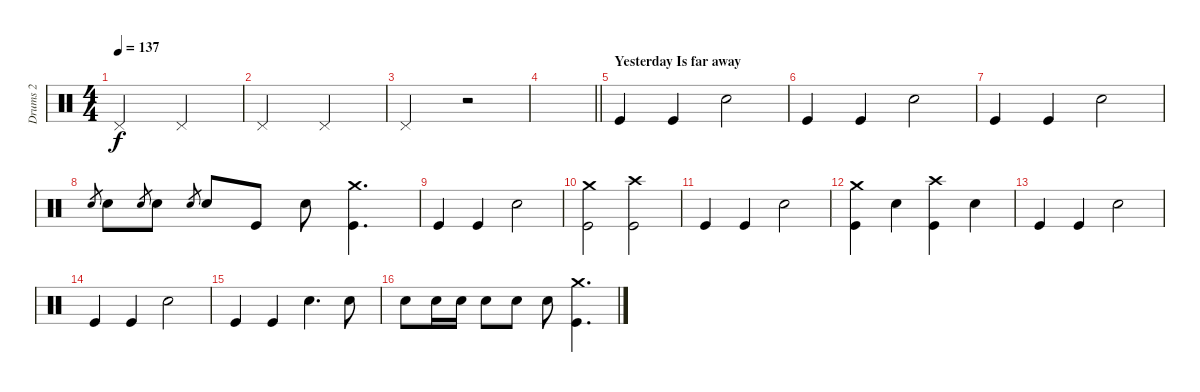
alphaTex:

\track ("Drums 2" "Drums 2") {instrument percussion}
\staff {score}
\articulation defaults
\ts (4 4)
\tempo 137
\clef neutral
\ks c "Pedal Hi-Hat (hit)".2{dy f} "Pedal Hi-Hat (hit)".2
|
"Pedal Hi-Hat (hit)".2 "Pedal Hi-Hat (hit)".2 |
"Pedal Hi-Hat (hit)".2 r.2 |
\barLineRight lightlight
|
\section ("" "Yesterday Is far away")
"Kick (hit)".4 "Kick (hit)".4 "Snare (hit) 2".2 |
"Kick (hit)".4 "Kick (hit)".4 "Snare (hit) 2".2 |
"Kick (hit)".4 "Kick (hit)".4 "Snare (hit) 2".2 |
"Snare (hit) 2".8{gr} "Snare (hit) 2".8 "Snare (hit) 2".8{gr} "Snare (hit) 2".8 "Snare (hit) 2".8{gr} "Snare (hit) 2".8 "Kick (hit)".8 "Snare (hit) 2".8 ("Crash medium (hit)" "Kick (hit)").4{d} |
"Kick (hit)".4 "Kick (hit)".4 "Snare (hit) 2".2 |
("Crash medium (hit)" "Kick (hit)").2 ("Crash high (hit)" "Kick (hit)").2 |
"Kick (hit)".4 "Kick (hit)".4 "Snare (hit) 2".2 |
("Crash medium (hit)" "Kick (hit)").4 "Snare (hit) 2".4 ("Crash high (hit)" "Kick (hit)").4 "Snare (hit) 2".4 |
"Kick (hit)".4 "Kick (hit)".4 "Snare (hit) 2".2 |
"Kick (hit)".4 "Kick (hit)".4 "Snare (hit) 2".2 |
"Kick (hit)".4 "Kick (hit)".4 "Snare (hit) 2".4{d} "Snare (hit) 2".8 |
"Snare (hit) 2".8 "Snare (hit) 2".16 "Snare (hit) 2".16 "Snare (hit) 2".8 "Snare (hit) 2".8 "Snare (hit) 2".8 ("Crash medium (hit)" "Kick (hit)").4{d}
